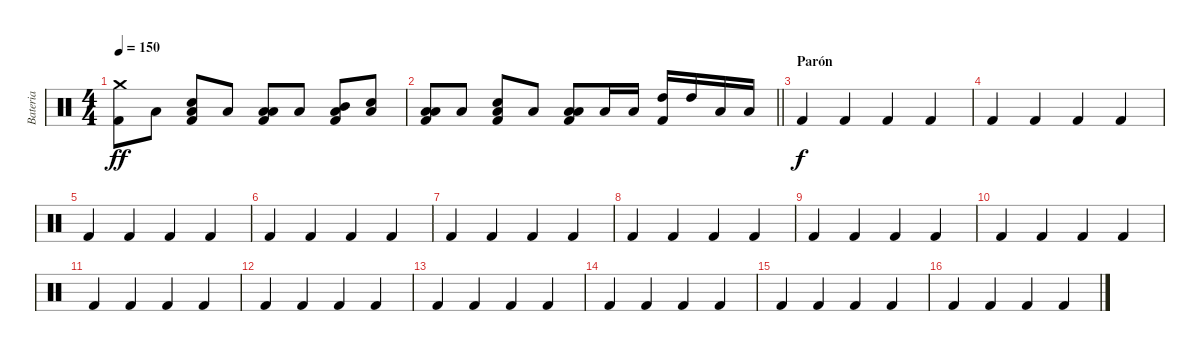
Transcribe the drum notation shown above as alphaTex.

\track ("Bateria" "Bateria") {instrument percussion}
\staff {score}
\articulation defaults
\ts (4 4)
\tempo 150
\clef neutral
\ks c
("Crash medium (hit)" "Kick (hit) 2").8{dy ff} "Low Floor Tom (hit)".8 ("Low Floor Tom (hit)" "Snare (hit) 2" "Kick (hit) 2").8 "Low Floor Tom (hit)".8 ("Low Tom (hit)" "Low Floor Tom (hit)" "Kick (hit) 2").8 "Low Floor Tom (hit)".8 ("Mid Tom (hit)" "Low Floor Tom (hit)" "Kick (hit) 2").8 ("Low Floor Tom (hit)" "Snare (hit) 2").8 |
\barLineRight lightlight
("Low Tom (hit)" "Low Floor Tom (hit)" "Kick (hit) 2").8 "Low Floor Tom (hit)".8 ("Low Floor Tom (hit)" "Snare (hit) 2" "Kick (hit) 2").8 "Low Floor Tom (hit)".8 ("Low Tom (hit)" "Low Floor Tom (hit)" "Kick (hit) 2").8 "Low Tom (hit)".16 "Low Tom (hit)".16 ("High Tom (hit)" "Kick (hit) 2").16 "High Tom (hit)".16 "Low Floor Tom (hit)".16 "Low Floor Tom (hit)".16 |
\section ("" "Parón")
"Kick (hit) 2".4{dy f} "Kick (hit) 2".4 "Kick (hit) 2".4 "Kick (hit) 2".4 |
"Kick (hit) 2".4 "Kick (hit) 2".4 "Kick (hit) 2".4 "Kick (hit) 2".4 |
"Kick (hit) 2".4 "Kick (hit) 2".4 "Kick (hit) 2".4 "Kick (hit) 2".4 |
"Kick (hit) 2".4 "Kick (hit) 2".4 "Kick (hit) 2".4 "Kick (hit) 2".4 |
"Kick (hit) 2".4 "Kick (hit) 2".4 "Kick (hit) 2".4 "Kick (hit) 2".4 |
"Kick (hit) 2".4 "Kick (hit) 2".4 "Kick (hit) 2".4 "Kick (hit) 2".4 |
"Kick (hit) 2".4 "Kick (hit) 2".4 "Kick (hit) 2".4 "Kick (hit) 2".4 |
"Kick (hit) 2".4 "Kick (hit) 2".4 "Kick (hit) 2".4 "Kick (hit) 2".4 |
"Kick (hit) 2".4 "Kick (hit) 2".4 "Kick (hit) 2".4 "Kick (hit) 2".4 |
"Kick (hit) 2".4 "Kick (hit) 2".4 "Kick (hit) 2".4 "Kick (hit) 2".4 |
"Kick (hit) 2".4 "Kick (hit) 2".4 "Kick (hit) 2".4 "Kick (hit) 2".4 |
"Kick (hit) 2".4 "Kick (hit) 2".4 "Kick (hit) 2".4 "Kick (hit) 2".4 |
"Kick (hit) 2".4 "Kick (hit) 2".4 "Kick (hit) 2".4 "Kick (hit) 2".4 |
"Kick (hit) 2".4 "Kick (hit) 2".4 "Kick (hit) 2".4 "Kick (hit) 2".4
